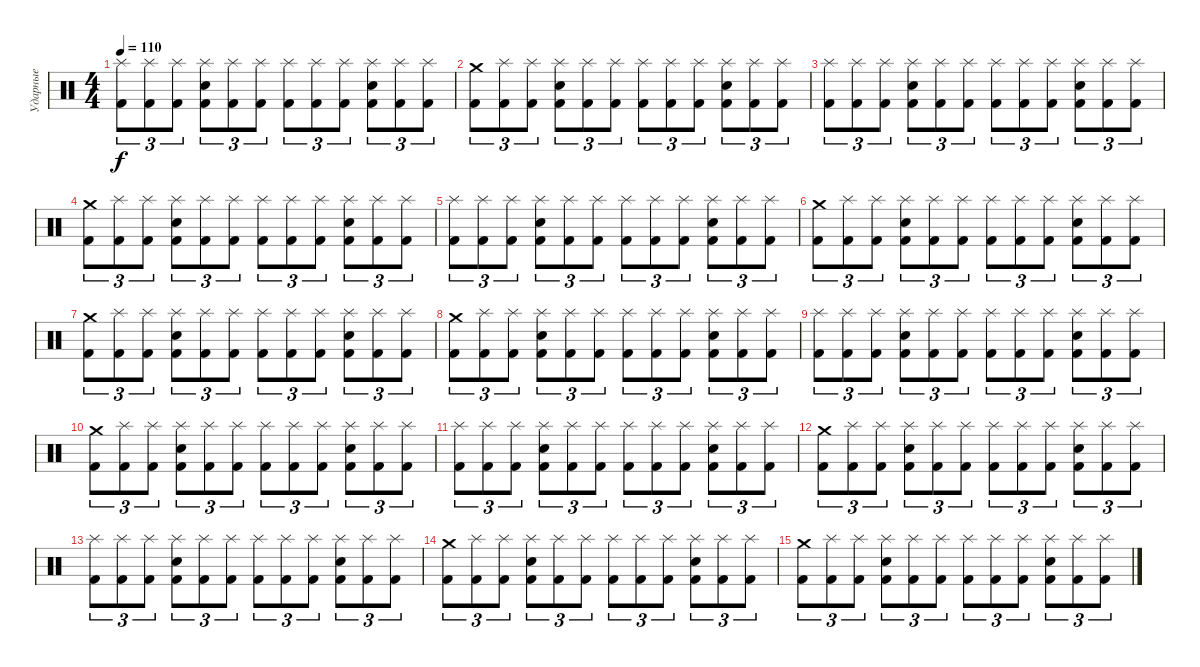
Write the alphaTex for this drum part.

\track ("Ударные" "Ударные") {instrument percussion}
\staff {score}
\articulation defaults
\ts (4 4)
\tempo 110
\clef neutral
\ks c
("Splash (hit)" "Kick (hit) 2").8{tu (3 2) dy f} ("Splash (hit)" "Kick (hit) 2").8{tu (3 2)} ("Splash (hit)" "Kick (hit) 2").8{tu (3 2)} ("Splash (hit)" "Electric Snare (hit)" "Kick (hit) 2").8{tu (3 2)} ("Splash (hit)" "Kick (hit) 2").8{tu (3 2)} ("Splash (hit)" "Kick (hit) 2").8{tu (3 2)} ("Splash (hit)" "Kick (hit) 2").8{tu (3 2)} ("Splash (hit)" "Kick (hit) 2").8{tu (3 2)} ("Splash (hit)" "Kick (hit) 2").8{tu (3 2)} ("Splash (hit)" "Electric Snare (hit)" "Kick (hit) 2").8{tu (3 2)} ("Splash (hit)" "Kick (hit) 2").8{tu (3 2)} ("Splash (hit)" "Kick (hit) 2").8{tu (3 2)} |
("Crash medium (hit)" "Kick (hit) 2").8{tu (3 2)} ("Splash (hit)" "Kick (hit) 2").8{tu (3 2)} ("Splash (hit)" "Kick (hit) 2").8{tu (3 2)} ("Splash (hit)" "Electric Snare (hit)" "Kick (hit) 2").8{tu (3 2)} ("Splash (hit)" "Kick (hit) 2").8{tu (3 2)} ("Splash (hit)" "Kick (hit) 2").8{tu (3 2)} ("Splash (hit)" "Kick (hit) 2").8{tu (3 2)} ("Splash (hit)" "Kick (hit) 2").8{tu (3 2)} ("Splash (hit)" "Kick (hit) 2").8{tu (3 2)} ("Splash (hit)" "Electric Snare (hit)" "Kick (hit) 2").8{tu (3 2)} ("Splash (hit)" "Kick (hit) 2").8{tu (3 2)} ("Splash (hit)" "Kick (hit) 2").8{tu (3 2)} |
("Splash (hit)" "Kick (hit) 2").8{tu (3 2)} ("Splash (hit)" "Kick (hit) 2").8{tu (3 2)} ("Splash (hit)" "Kick (hit) 2").8{tu (3 2)} ("Splash (hit)" "Electric Snare (hit)" "Kick (hit) 2").8{tu (3 2)} ("Splash (hit)" "Kick (hit) 2").8{tu (3 2)} ("Splash (hit)" "Kick (hit) 2").8{tu (3 2)} ("Splash (hit)" "Kick (hit) 2").8{tu (3 2)} ("Splash (hit)" "Kick (hit) 2").8{tu (3 2)} ("Splash (hit)" "Kick (hit) 2").8{tu (3 2)} ("Splash (hit)" "Electric Snare (hit)" "Kick (hit) 2").8{tu (3 2)} ("Splash (hit)" "Kick (hit) 2").8{tu (3 2)} ("Splash (hit)" "Kick (hit) 2").8{tu (3 2)} |
("Crash medium (hit)" "Kick (hit) 2").8{tu (3 2)} ("Splash (hit)" "Kick (hit) 2").8{tu (3 2)} ("Splash (hit)" "Kick (hit) 2").8{tu (3 2)} ("Splash (hit)" "Electric Snare (hit)" "Kick (hit) 2").8{tu (3 2)} ("Splash (hit)" "Kick (hit) 2").8{tu (3 2)} ("Splash (hit)" "Kick (hit) 2").8{tu (3 2)} ("Splash (hit)" "Kick (hit) 2").8{tu (3 2)} ("Splash (hit)" "Kick (hit) 2").8{tu (3 2)} ("Splash (hit)" "Kick (hit) 2").8{tu (3 2)} ("Splash (hit)" "Electric Snare (hit)" "Kick (hit) 2").8{tu (3 2)} ("Splash (hit)" "Kick (hit) 2").8{tu (3 2)} ("Splash (hit)" "Kick (hit) 2").8{tu (3 2)} |
("Splash (hit)" "Kick (hit) 2").8{tu (3 2)} ("Splash (hit)" "Kick (hit) 2").8{tu (3 2)} ("Splash (hit)" "Kick (hit) 2").8{tu (3 2)} ("Splash (hit)" "Electric Snare (hit)" "Kick (hit) 2").8{tu (3 2)} ("Splash (hit)" "Kick (hit) 2").8{tu (3 2)} ("Splash (hit)" "Kick (hit) 2").8{tu (3 2)} ("Splash (hit)" "Kick (hit) 2").8{tu (3 2)} ("Splash (hit)" "Kick (hit) 2").8{tu (3 2)} ("Splash (hit)" "Kick (hit) 2").8{tu (3 2)} ("Splash (hit)" "Electric Snare (hit)" "Kick (hit) 2").8{tu (3 2)} ("Splash (hit)" "Kick (hit) 2").8{tu (3 2)} ("Splash (hit)" "Kick (hit) 2").8{tu (3 2)} |
("Crash medium (hit)" "Kick (hit) 2").8{tu (3 2)} ("Splash (hit)" "Kick (hit) 2").8{tu (3 2)} ("Splash (hit)" "Kick (hit) 2").8{tu (3 2)} ("Splash (hit)" "Electric Snare (hit)" "Kick (hit) 2").8{tu (3 2)} ("Splash (hit)" "Kick (hit) 2").8{tu (3 2)} ("Splash (hit)" "Kick (hit) 2").8{tu (3 2)} ("Splash (hit)" "Kick (hit) 2").8{tu (3 2)} ("Splash (hit)" "Kick (hit) 2").8{tu (3 2)} ("Splash (hit)" "Kick (hit) 2").8{tu (3 2)} ("Splash (hit)" "Electric Snare (hit)" "Kick (hit) 2").8{tu (3 2)} ("Splash (hit)" "Kick (hit) 2").8{tu (3 2)} ("Splash (hit)" "Kick (hit) 2").8{tu (3 2)} |
("Crash medium (hit)" "Kick (hit) 2").8{tu (3 2)} ("Splash (hit)" "Kick (hit) 2").8{tu (3 2)} ("Splash (hit)" "Kick (hit) 2").8{tu (3 2)} ("Splash (hit)" "Electric Snare (hit)" "Kick (hit) 2").8{tu (3 2)} ("Splash (hit)" "Kick (hit) 2").8{tu (3 2)} ("Splash (hit)" "Kick (hit) 2").8{tu (3 2)} ("Splash (hit)" "Kick (hit) 2").8{tu (3 2)} ("Splash (hit)" "Kick (hit) 2").8{tu (3 2)} ("Splash (hit)" "Kick (hit) 2").8{tu (3 2)} ("Splash (hit)" "Electric Snare (hit)" "Kick (hit) 2").8{tu (3 2)} ("Splash (hit)" "Kick (hit) 2").8{tu (3 2)} ("Splash (hit)" "Kick (hit) 2").8{tu (3 2)} |
("Crash medium (hit)" "Kick (hit) 2").8{tu (3 2)} ("Splash (hit)" "Kick (hit) 2").8{tu (3 2)} ("Splash (hit)" "Kick (hit) 2").8{tu (3 2)} ("Splash (hit)" "Electric Snare (hit)" "Kick (hit) 2").8{tu (3 2)} ("Splash (hit)" "Kick (hit) 2").8{tu (3 2)} ("Splash (hit)" "Kick (hit) 2").8{tu (3 2)} ("Splash (hit)" "Kick (hit) 2").8{tu (3 2)} ("Splash (hit)" "Kick (hit) 2").8{tu (3 2)} ("Splash (hit)" "Kick (hit) 2").8{tu (3 2)} ("Splash (hit)" "Electric Snare (hit)" "Kick (hit) 2").8{tu (3 2)} ("Splash (hit)" "Kick (hit) 2").8{tu (3 2)} ("Splash (hit)" "Kick (hit) 2").8{tu (3 2)} |
("Splash (hit)" "Kick (hit) 2").8{tu (3 2)} ("Splash (hit)" "Kick (hit) 2").8{tu (3 2)} ("Splash (hit)" "Kick (hit) 2").8{tu (3 2)} ("Splash (hit)" "Electric Snare (hit)" "Kick (hit) 2").8{tu (3 2)} ("Splash (hit)" "Kick (hit) 2").8{tu (3 2)} ("Splash (hit)" "Kick (hit) 2").8{tu (3 2)} ("Splash (hit)" "Kick (hit) 2").8{tu (3 2)} ("Splash (hit)" "Kick (hit) 2").8{tu (3 2)} ("Splash (hit)" "Kick (hit) 2").8{tu (3 2)} ("Splash (hit)" "Electric Snare (hit)" "Kick (hit) 2").8{tu (3 2)} ("Splash (hit)" "Kick (hit) 2").8{tu (3 2)} ("Splash (hit)" "Kick (hit) 2").8{tu (3 2)} |
("Crash medium (hit)" "Kick (hit) 2").8{tu (3 2)} ("Splash (hit)" "Kick (hit) 2").8{tu (3 2)} ("Splash (hit)" "Kick (hit) 2").8{tu (3 2)} ("Splash (hit)" "Electric Snare (hit)" "Kick (hit) 2").8{tu (3 2)} ("Splash (hit)" "Kick (hit) 2").8{tu (3 2)} ("Splash (hit)" "Kick (hit) 2").8{tu (3 2)} ("Splash (hit)" "Kick (hit) 2").8{tu (3 2)} ("Splash (hit)" "Kick (hit) 2").8{tu (3 2)} ("Splash (hit)" "Kick (hit) 2").8{tu (3 2)} ("Splash (hit)" "Electric Snare (hit)" "Kick (hit) 2").8{tu (3 2)} ("Splash (hit)" "Kick (hit) 2").8{tu (3 2)} ("Splash (hit)" "Kick (hit) 2").8{tu (3 2)} |
("Splash (hit)" "Kick (hit) 2").8{tu (3 2)} ("Splash (hit)" "Kick (hit) 2").8{tu (3 2)} ("Splash (hit)" "Kick (hit) 2").8{tu (3 2)} ("Splash (hit)" "Electric Snare (hit)" "Kick (hit) 2").8{tu (3 2)} ("Splash (hit)" "Kick (hit) 2").8{tu (3 2)} ("Splash (hit)" "Kick (hit) 2").8{tu (3 2)} ("Splash (hit)" "Kick (hit) 2").8{tu (3 2)} ("Splash (hit)" "Kick (hit) 2").8{tu (3 2)} ("Splash (hit)" "Kick (hit) 2").8{tu (3 2)} ("Splash (hit)" "Electric Snare (hit)" "Kick (hit) 2").8{tu (3 2)} ("Splash (hit)" "Kick (hit) 2").8{tu (3 2)} ("Splash (hit)" "Kick (hit) 2").8{tu (3 2)} |
("Crash medium (hit)" "Kick (hit) 2").8{tu (3 2)} ("Splash (hit)" "Kick (hit) 2").8{tu (3 2)} ("Splash (hit)" "Kick (hit) 2").8{tu (3 2)} ("Splash (hit)" "Electric Snare (hit)" "Kick (hit) 2").8{tu (3 2)} ("Splash (hit)" "Kick (hit) 2").8{tu (3 2)} ("Splash (hit)" "Kick (hit) 2").8{tu (3 2)} ("Splash (hit)" "Kick (hit) 2").8{tu (3 2)} ("Splash (hit)" "Kick (hit) 2").8{tu (3 2)} ("Splash (hit)" "Kick (hit) 2").8{tu (3 2)} ("Splash (hit)" "Electric Snare (hit)" "Kick (hit) 2").8{tu (3 2)} ("Splash (hit)" "Kick (hit) 2").8{tu (3 2)} ("Splash (hit)" "Kick (hit) 2").8{tu (3 2)} |
("Splash (hit)" "Kick (hit) 2").8{tu (3 2)} ("Splash (hit)" "Kick (hit) 2").8{tu (3 2)} ("Splash (hit)" "Kick (hit) 2").8{tu (3 2)} ("Splash (hit)" "Electric Snare (hit)" "Kick (hit) 2").8{tu (3 2)} ("Splash (hit)" "Kick (hit) 2").8{tu (3 2)} ("Splash (hit)" "Kick (hit) 2").8{tu (3 2)} ("Splash (hit)" "Kick (hit) 2").8{tu (3 2)} ("Splash (hit)" "Kick (hit) 2").8{tu (3 2)} ("Splash (hit)" "Kick (hit) 2").8{tu (3 2)} ("Splash (hit)" "Electric Snare (hit)" "Kick (hit) 2").8{tu (3 2)} ("Splash (hit)" "Kick (hit) 2").8{tu (3 2)} ("Splash (hit)" "Kick (hit) 2").8{tu (3 2)} |
("Crash medium (hit)" "Kick (hit) 2").8{tu (3 2)} ("Splash (hit)" "Kick (hit) 2").8{tu (3 2)} ("Splash (hit)" "Kick (hit) 2").8{tu (3 2)} ("Splash (hit)" "Electric Snare (hit)" "Kick (hit) 2").8{tu (3 2)} ("Splash (hit)" "Kick (hit) 2").8{tu (3 2)} ("Splash (hit)" "Kick (hit) 2").8{tu (3 2)} ("Splash (hit)" "Kick (hit) 2").8{tu (3 2)} ("Splash (hit)" "Kick (hit) 2").8{tu (3 2)} ("Splash (hit)" "Kick (hit) 2").8{tu (3 2)} ("Splash (hit)" "Electric Snare (hit)" "Kick (hit) 2").8{tu (3 2)} ("Splash (hit)" "Kick (hit) 2").8{tu (3 2)} ("Splash (hit)" "Kick (hit) 2").8{tu (3 2)} |
("Crash medium (hit)" "Kick (hit) 2").8{tu (3 2)} ("Splash (hit)" "Kick (hit) 2").8{tu (3 2)} ("Splash (hit)" "Kick (hit) 2").8{tu (3 2)} ("Splash (hit)" "Electric Snare (hit)" "Kick (hit) 2").8{tu (3 2)} ("Splash (hit)" "Kick (hit) 2").8{tu (3 2)} ("Splash (hit)" "Kick (hit) 2").8{tu (3 2)} ("Splash (hit)" "Kick (hit) 2").8{tu (3 2)} ("Splash (hit)" "Kick (hit) 2").8{tu (3 2)} ("Splash (hit)" "Kick (hit) 2").8{tu (3 2)} ("Splash (hit)" "Electric Snare (hit)" "Kick (hit) 2").8{tu (3 2)} ("Splash (hit)" "Kick (hit) 2").8{tu (3 2)} ("Splash (hit)" "Kick (hit) 2").8{tu (3 2)}
